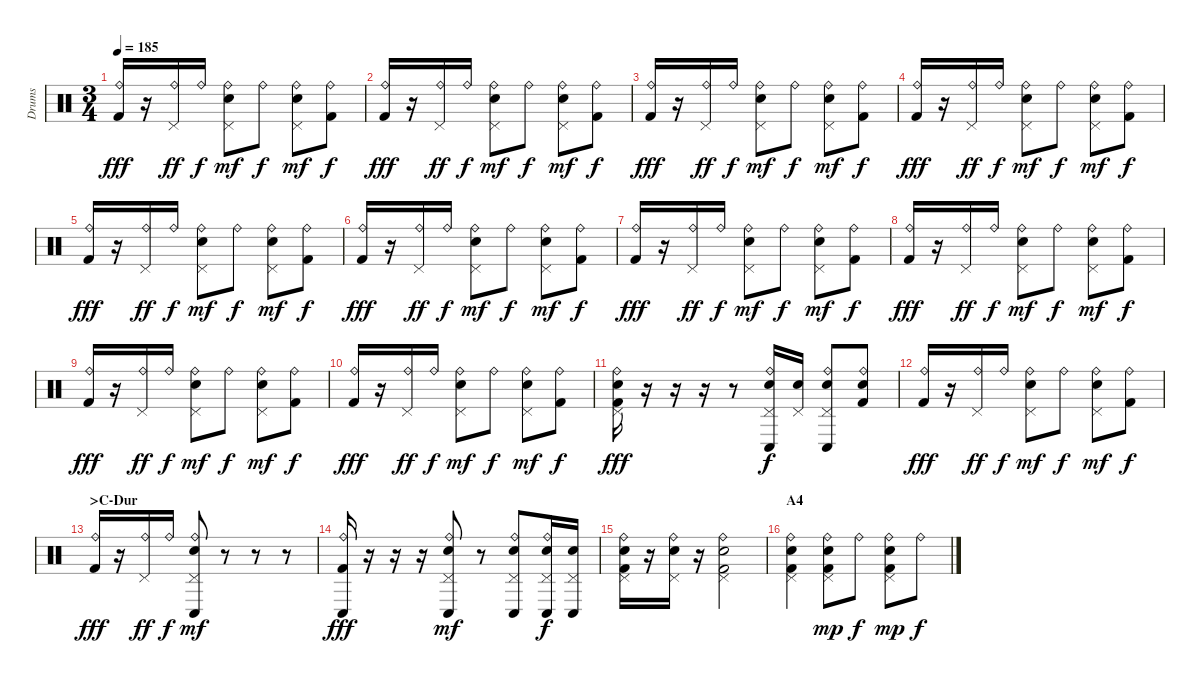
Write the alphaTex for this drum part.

\track ("Drums" "Drums") {instrument percussion}
\staff {score}
\articulation defaults
\ts (3 4)
\tempo 185
\clef neutral
\ks c
("Ride (bell)" "Kick (hit) 2").16{dy fff} r.16 ("Ride (bell)" "Pedal Hi-Hat (hit)").16{dy ff} "Ride (bell)".16{dy f} ("Ride (bell)" "Pedal Hi-Hat (hit)" "Electric Snare (hit)").8{dy mf} "Ride (bell)".8{dy f} ("Ride (bell)" "Pedal Hi-Hat (hit)" "Electric Snare (hit)").8{dy mf} ("Ride (bell)" "Kick (hit) 2").8{dy f} |
("Ride (bell)" "Kick (hit) 2").16{dy fff} r.16 ("Ride (bell)" "Pedal Hi-Hat (hit)").16{dy ff} "Ride (bell)".16{dy f} ("Ride (bell)" "Pedal Hi-Hat (hit)" "Electric Snare (hit)").8{dy mf} "Ride (bell)".8{dy f} ("Ride (bell)" "Pedal Hi-Hat (hit)" "Electric Snare (hit)").8{dy mf} ("Ride (bell)" "Kick (hit) 2").8{dy f} |
("Ride (bell)" "Kick (hit) 2").16{dy fff} r.16 ("Ride (bell)" "Pedal Hi-Hat (hit)").16{dy ff} "Ride (bell)".16{dy f} ("Ride (bell)" "Pedal Hi-Hat (hit)" "Electric Snare (hit)").8{dy mf} "Ride (bell)".8{dy f} ("Ride (bell)" "Pedal Hi-Hat (hit)" "Electric Snare (hit)").8{dy mf} ("Ride (bell)" "Kick (hit) 2").8{dy f} |
("Ride (bell)" "Kick (hit) 2").16{dy fff} r.16 ("Ride (bell)" "Pedal Hi-Hat (hit)").16{dy ff} "Ride (bell)".16{dy f} ("Ride (bell)" "Pedal Hi-Hat (hit)" "Electric Snare (hit)").8{dy mf} "Ride (bell)".8{dy f} ("Ride (bell)" "Pedal Hi-Hat (hit)" "Electric Snare (hit)").8{dy mf} ("Ride (bell)" "Kick (hit) 2").8{dy f} |
("Ride (bell)" "Kick (hit) 2").16{dy fff} r.16 ("Ride (bell)" "Pedal Hi-Hat (hit)").16{dy ff} "Ride (bell)".16{dy f} ("Ride (bell)" "Pedal Hi-Hat (hit)" "Electric Snare (hit)").8{dy mf} "Ride (bell)".8{dy f} ("Ride (bell)" "Pedal Hi-Hat (hit)" "Electric Snare (hit)").8{dy mf} ("Ride (bell)" "Kick (hit) 2").8{dy f} |
("Ride (bell)" "Kick (hit) 2").16{dy fff} r.16 ("Ride (bell)" "Pedal Hi-Hat (hit)").16{dy ff} "Ride (bell)".16{dy f} ("Ride (bell)" "Pedal Hi-Hat (hit)" "Electric Snare (hit)").8{dy mf} "Ride (bell)".8{dy f} ("Ride (bell)" "Pedal Hi-Hat (hit)" "Electric Snare (hit)").8{dy mf} ("Ride (bell)" "Kick (hit) 2").8{dy f} |
("Ride (bell)" "Kick (hit) 2").16{dy fff} r.16 ("Ride (bell)" "Pedal Hi-Hat (hit)").16{dy ff} "Ride (bell)".16{dy f} ("Ride (bell)" "Pedal Hi-Hat (hit)" "Electric Snare (hit)").8{dy mf} "Ride (bell)".8{dy f} ("Ride (bell)" "Pedal Hi-Hat (hit)" "Electric Snare (hit)").8{dy mf} ("Ride (bell)" "Kick (hit) 2").8{dy f} |
("Ride (bell)" "Kick (hit) 2").16{dy fff} r.16 ("Ride (bell)" "Pedal Hi-Hat (hit)").16{dy ff} "Ride (bell)".16{dy f} ("Ride (bell)" "Pedal Hi-Hat (hit)" "Electric Snare (hit)").8{dy mf} "Ride (bell)".8{dy f} ("Ride (bell)" "Pedal Hi-Hat (hit)" "Electric Snare (hit)").8{dy mf} ("Ride (bell)" "Kick (hit) 2").8{dy f} |
("Ride (bell)" "Kick (hit) 2").16{dy fff} r.16 ("Ride (bell)" "Pedal Hi-Hat (hit)").16{dy ff} "Ride (bell)".16{dy f} ("Ride (bell)" "Pedal Hi-Hat (hit)" "Electric Snare (hit)").8{dy mf} "Ride (bell)".8{dy f} ("Ride (bell)" "Pedal Hi-Hat (hit)" "Electric Snare (hit)").8{dy mf} ("Ride (bell)" "Kick (hit) 2").8{dy f} |
("Ride (bell)" "Kick (hit) 2").16{dy fff} r.16 ("Ride (bell)" "Pedal Hi-Hat (hit)").16{dy ff} "Ride (bell)".16{dy f} ("Ride (bell)" "Pedal Hi-Hat (hit)" "Electric Snare (hit)").8{dy mf} "Ride (bell)".8{dy f} ("Ride (bell)" "Pedal Hi-Hat (hit)" "Electric Snare (hit)").8{dy mf} ("Ride (bell)" "Kick (hit) 2").8{dy f} |
("Ride (bell)" "Pedal Hi-Hat (hit)" "Electric Snare (hit)" "Kick (hit) 2").16{dy fff} r.16 r.16 r.16 r.8 ("Ride (bell)" "Pedal Hi-Hat (hit)" "Conga low (hit)" "Electric Snare (hit)").16{dy f} ("Pedal Hi-Hat (hit)" "Electric Snare (hit)").16 ("Ride (bell)" "Pedal Hi-Hat (hit)" "Conga low (hit)" "Electric Snare (hit)").8 ("Ride (bell)" "Electric Snare (hit)" "Kick (hit) 2").8 |
("Ride (bell)" "Kick (hit) 2").16{dy fff} r.16 ("Ride (bell)" "Pedal Hi-Hat (hit)").16{dy ff} "Ride (bell)".16{dy f} ("Ride (bell)" "Pedal Hi-Hat (hit)" "Electric Snare (hit)").8{dy mf} "Ride (bell)".8{dy f} ("Ride (bell)" "Pedal Hi-Hat (hit)" "Electric Snare (hit)").8{dy mf} ("Ride (bell)" "Kick (hit) 2").8{dy f} |
\section ("" ">C-Dur")
("Ride (bell)" "Kick (hit) 2").16{dy fff} r.16 ("Ride (bell)" "Pedal Hi-Hat (hit)").16{dy ff} "Ride (bell)".16{dy f} ("Ride (bell)" "Pedal Hi-Hat (hit)" "Conga low (hit)" "Electric Snare (hit)").8{dy mf} r.8 r.8 r.8 |
("Ride (bell)" "Conga low (hit)" "Kick (hit) 2").16{dy fff} r.16 r.16 r.16 ("Ride (bell)" "Pedal Hi-Hat (hit)" "Conga low (hit)" "Electric Snare (hit)").8{dy mf} r.8 ("Ride (bell)" "Pedal Hi-Hat (hit)" "Conga low (hit)" "Electric Snare (hit)").8 ("Ride (bell)" "Pedal Hi-Hat (hit)" "Conga low (hit)" "Electric Snare (hit)").16{dy f} ("Pedal Hi-Hat (hit)" "Conga low (hit)" "Electric Snare (hit)").16 |
("Ride (bell)" "Pedal Hi-Hat (hit)" "Electric Snare (hit)" "Kick (hit) 2").16 r.16 ("Ride (bell)" "Pedal Hi-Hat (hit)" "Electric Snare (hit)").16 r.16 ("Ride (bell)" "Pedal Hi-Hat (hit)" "Electric Snare (hit)" "Kick (hit) 2").2 |
\section ("" "A4")
("Ride (bell)" "Pedal Hi-Hat (hit)" "Electric Snare (hit)" "Kick (hit) 2").4 ("Ride (bell)" "Pedal Hi-Hat (hit)" "Electric Snare (hit)" "Kick (hit) 2").8{dy mp} "Ride (bell)".8{dy f} ("Ride (bell)" "Pedal Hi-Hat (hit)" "Electric Snare (hit)" "Kick (hit) 2").8{dy mp} "Ride (bell)".8{dy f}
